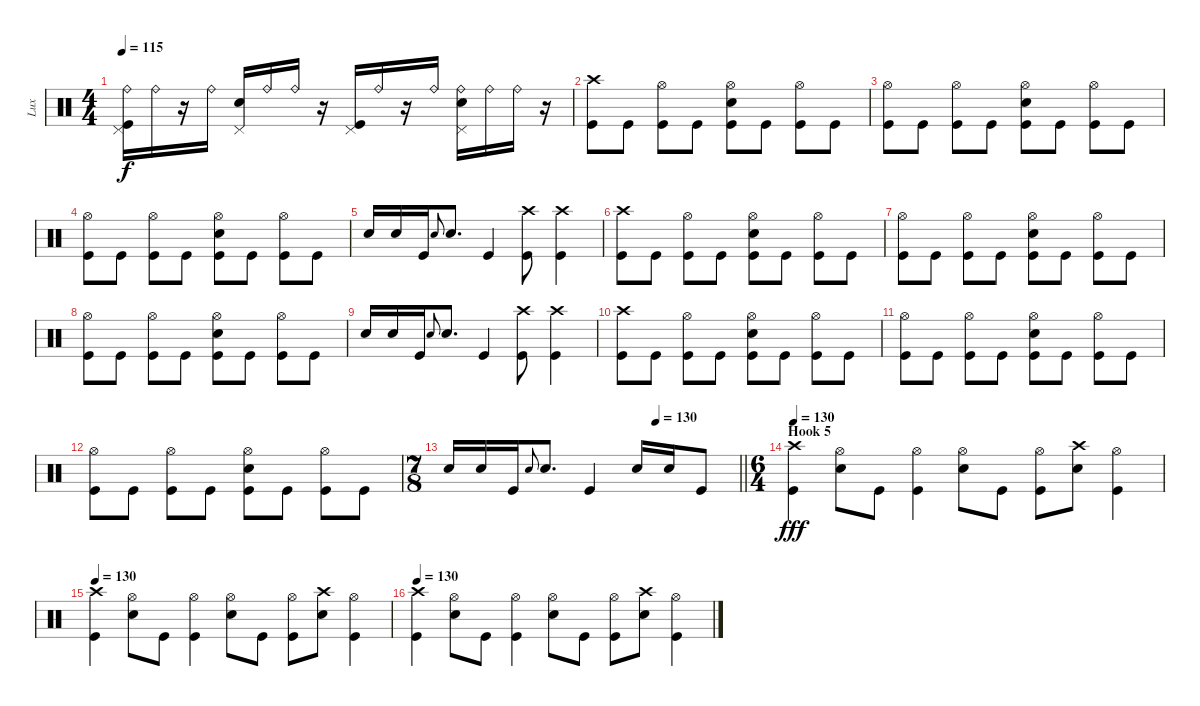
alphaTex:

\track ("Lux" "Lux") {instrument percussion}
\staff {score}
\articulation defaults
\ts (4 4)
\tempo 115
\clef neutral
\ks c
("Ride (bell)" "Pedal Hi-Hat (hit)" "Kick (hit)").16{dy f} "Ride (bell)".16 r.16 "Ride (bell)".16 ("Pedal Hi-Hat (hit)" "Snare (hit) 2").16 "Ride (bell)".16 "Ride (bell)".16 r.16 ("Pedal Hi-Hat (hit)" "Kick (hit)").16 "Ride (bell)".16 r.16 "Ride (bell)".16 ("Ride (bell)" "Pedal Hi-Hat (hit)" "Snare (hit) 2").16 "Ride (bell)".16 "Ride (bell)".16 r.16 |
("Crash high (hit)" "Kick (hit)").8 "Kick (hit)".8 ("Hi-Hat (open)" "Kick (hit)").8 "Kick (hit)".8 ("Hi-Hat (open)" "Snare (hit) 2" "Kick (hit)").8 "Kick (hit)".8 ("Hi-Hat (open)" "Kick (hit)").8 "Kick (hit)".8 |
("Hi-Hat (open)" "Kick (hit)").8 "Kick (hit)".8 ("Hi-Hat (open)" "Kick (hit)").8 "Kick (hit)".8 ("Hi-Hat (open)" "Snare (hit) 2" "Kick (hit)").8 "Kick (hit)".8 ("Hi-Hat (open)" "Kick (hit)").8 "Kick (hit)".8 |
("Hi-Hat (open)" "Kick (hit)").8 "Kick (hit)".8 ("Hi-Hat (open)" "Kick (hit)").8 "Kick (hit)".8 ("Hi-Hat (open)" "Snare (hit) 2" "Kick (hit)").8 "Kick (hit)".8 ("Hi-Hat (open)" "Kick (hit)").8 "Kick (hit)".8 |
"Snare (hit) 2".16 "Snare (hit) 2".16 "Kick (hit)".16 "Snare (hit) 2".8{gr onbeat} "Snare (hit) 2".8{d} "Kick (hit)".4 ("Crash high (hit)" "Kick (hit)").8 ("Crash high (hit)" "Kick (hit)").4 |
("Crash high (hit)" "Kick (hit)").8 "Kick (hit)".8 ("Hi-Hat (open)" "Kick (hit)").8 "Kick (hit)".8 ("Hi-Hat (open)" "Snare (hit) 2" "Kick (hit)").8 "Kick (hit)".8 ("Hi-Hat (open)" "Kick (hit)").8 "Kick (hit)".8 |
("Hi-Hat (open)" "Kick (hit)").8 "Kick (hit)".8 ("Hi-Hat (open)" "Kick (hit)").8 "Kick (hit)".8 ("Hi-Hat (open)" "Snare (hit) 2" "Kick (hit)").8 "Kick (hit)".8 ("Hi-Hat (open)" "Kick (hit)").8 "Kick (hit)".8 |
("Hi-Hat (open)" "Kick (hit)").8 "Kick (hit)".8 ("Hi-Hat (open)" "Kick (hit)").8 "Kick (hit)".8 ("Hi-Hat (open)" "Snare (hit) 2" "Kick (hit)").8 "Kick (hit)".8 ("Hi-Hat (open)" "Kick (hit)").8 "Kick (hit)".8 |
"Snare (hit) 2".16 "Snare (hit) 2".16 "Kick (hit)".16 "Snare (hit) 2".8{gr onbeat} "Snare (hit) 2".8{d} "Kick (hit)".4 ("Crash high (hit)" "Kick (hit)").8 ("Crash high (hit)" "Kick (hit)").4 |
("Crash high (hit)" "Kick (hit)").8 "Kick (hit)".8 ("Hi-Hat (open)" "Kick (hit)").8 "Kick (hit)".8 ("Hi-Hat (open)" "Snare (hit) 2" "Kick (hit)").8 "Kick (hit)".8 ("Hi-Hat (open)" "Kick (hit)").8 "Kick (hit)".8 |
("Hi-Hat (open)" "Kick (hit)").8 "Kick (hit)".8 ("Hi-Hat (open)" "Kick (hit)").8 "Kick (hit)".8 ("Hi-Hat (open)" "Snare (hit) 2" "Kick (hit)").8 "Kick (hit)".8 ("Hi-Hat (open)" "Kick (hit)").8 "Kick (hit)".8 |
("Hi-Hat (open)" "Kick (hit)").8 "Kick (hit)".8 ("Hi-Hat (open)" "Kick (hit)").8 "Kick (hit)".8 ("Hi-Hat (open)" "Snare (hit) 2" "Kick (hit)").8 "Kick (hit)".8 ("Hi-Hat (open)" "Kick (hit)").8 "Kick (hit)".8 |
\ts (7 8)
\tempo (130 0.7142857142857143)
\barLineRight lightlight "Snare (hit) 2".16 "Snare (hit) 2".16 "Kick (hit)".16 "Snare (hit) 2".8{gr onbeat} "Snare (hit) 2".8{d} "Kick (hit)".4 "Snare (hit) 2".16 "Snare (hit) 2".16 "Kick (hit)".8
|
\ts (6 4)
\section ("" "Hook 5")
\tempo 130
("Crash high (hit)" "Kick (hit)").4{dy fff} ("Hi-Hat (open)" "Snare (hit) 2").8 "Kick (hit)".8 ("Hi-Hat (open)" "Kick (hit)").4 ("Hi-Hat (open)" "Snare (hit) 2").8 "Kick (hit)".8 ("Hi-Hat (open)" "Kick (hit)").8 ("Crash high (hit)" "Snare (hit) 2").8 ("Hi-Hat (open)" "Kick (hit)").4 |
\tempo 130
("Crash high (hit)" "Kick (hit)").4 ("Hi-Hat (open)" "Snare (hit) 2").8 "Kick (hit)".8 ("Hi-Hat (open)" "Kick (hit)").4 ("Hi-Hat (open)" "Snare (hit) 2").8 "Kick (hit)".8 ("Hi-Hat (open)" "Kick (hit)").8 ("Crash high (hit)" "Snare (hit) 2").8 ("Hi-Hat (open)" "Kick (hit)").4 |
\tempo 130
("Crash high (hit)" "Kick (hit)").4 ("Hi-Hat (open)" "Snare (hit) 2").8 "Kick (hit)".8 ("Hi-Hat (open)" "Kick (hit)").4 ("Hi-Hat (open)" "Snare (hit) 2").8 "Kick (hit)".8 ("Hi-Hat (open)" "Kick (hit)").8 ("Crash high (hit)" "Snare (hit) 2").8 ("Hi-Hat (open)" "Kick (hit)").4
